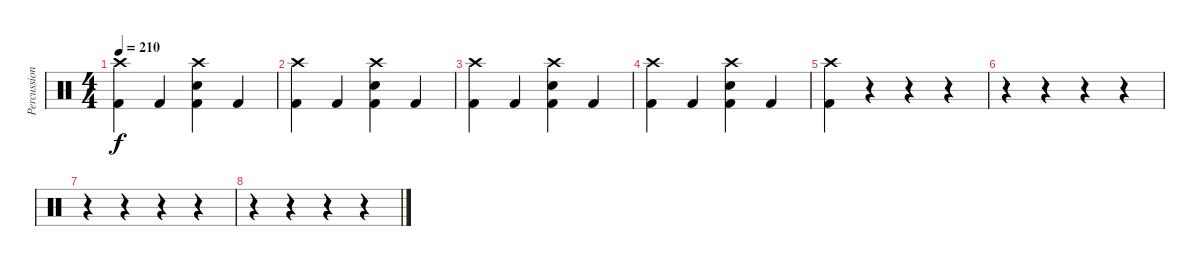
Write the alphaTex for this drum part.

\track ("Percussion" "Percussion") {instrument percussion}
\staff {score}
\articulation defaults
\ts (4 4)
\tempo 210
\clef neutral
\ks c
("Crash high (hit)" "Kick (hit) 2").4{dy f} "Kick (hit) 2".4 ("Crash high (hit)" "Snare (hit) 2" "Kick (hit) 2").4 "Kick (hit) 2".4 |
("Crash high (hit)" "Kick (hit) 2").4 "Kick (hit) 2".4 ("Crash high (hit)" "Snare (hit) 2" "Kick (hit) 2").4 "Kick (hit) 2".4 |
("Crash high (hit)" "Kick (hit) 2").4 "Kick (hit) 2".4 ("Crash high (hit)" "Snare (hit) 2" "Kick (hit) 2").4 "Kick (hit) 2".4 |
("Crash high (hit)" "Kick (hit) 2").4 "Kick (hit) 2".4 ("Crash high (hit)" "Snare (hit) 2" "Kick (hit) 2").4 "Kick (hit) 2".4 |
("Crash high (hit)" "Kick (hit) 2").4 r.4 r.4 r.4 |
r.4 r.4 r.4 r.4 |
r.4 r.4 r.4 r.4 |
r.4 r.4 r.4 r.4
